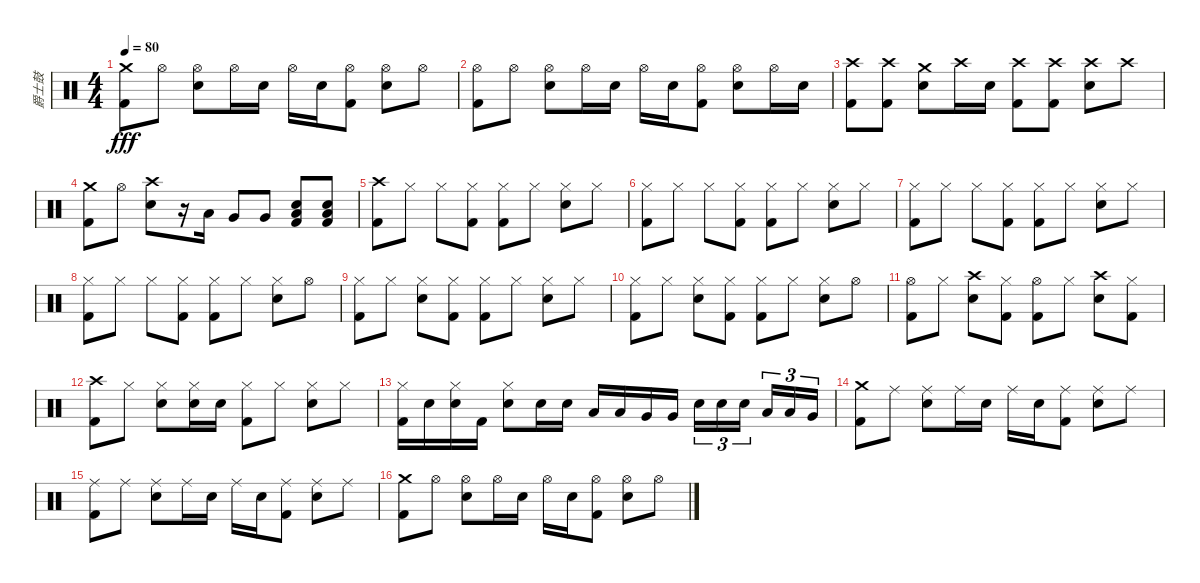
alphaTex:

\track ("爵士鼓" "爵士鼓") {instrument percussion}
\staff {score}
\articulation defaults
\ts (4 4)
\tempo 80
\clef neutral
\ks c
("Crash medium (hit)" "Kick (hit) 2").8{dy fff} "Hi-Hat (open)".8 ("Hi-Hat (open)" "Electric Snare (hit)").8 "Hi-Hat (open)".16 "Electric Snare (hit)".16 "Hi-Hat (open)".16 "Electric Snare (hit)".16 ("Hi-Hat (open)" "Kick (hit) 2").8 ("Hi-Hat (open)" "Electric Snare (hit)").8 "Hi-Hat (open)".8 |
("Hi-Hat (open)" "Kick (hit) 2").8 "Hi-Hat (open)".8 ("Hi-Hat (open)" "Electric Snare (hit)").8 "Hi-Hat (open)".16 "Electric Snare (hit)".16 "Hi-Hat (open)".16 "Electric Snare (hit)".16 ("Hi-Hat (open)" "Kick (hit) 2").8 ("Hi-Hat (open)" "Electric Snare (hit)").8 "Hi-Hat (open)".16 "Electric Snare (hit)".16 |
("Crash high (hit)" "Kick (hit) 2").8 ("Crash high (hit)" "Kick (hit) 2").8 ("Crash medium (hit)" "Electric Snare (hit)").8 "Crash high (hit)".16 "Electric Snare (hit)".16 ("Crash high (hit)" "Kick (hit) 2").8 ("Crash high (hit)" "Kick (hit) 2").8 ("Crash high (hit)" "Electric Snare (hit)").8 "Crash high (hit)".8 |
("Crash medium (hit)" "Kick (hit) 2").8 "Hi-Hat (open)".8 ("Crash high (hit)" "Electric Snare (hit)").8 r.16 "Low Tom (hit)".16 "Very Low Tom (hit)".8 "Very Low Tom (hit)".8 ("Electric Snare (hit)" "Low Floor Tom (hit)" "Kick (hit) 2").8 ("Electric Snare (hit)" "Low Floor Tom (hit)" "Kick (hit) 2").8 |
("Crash high (hit)" "Kick (hit) 2").8 "Hi-Hat (closed)".8 "Hi-Hat (closed)".8 ("Hi-Hat (closed)" "Kick (hit) 2").8 ("Hi-Hat (closed)" "Kick (hit) 2").8 "Hi-Hat (closed)".8 ("Hi-Hat (closed)" "Electric Snare (hit)").8 "Hi-Hat (closed)".8 |
("Hi-Hat (closed)" "Kick (hit) 2").8 "Hi-Hat (closed)".8 "Hi-Hat (closed)".8 ("Hi-Hat (closed)" "Kick (hit) 2").8 ("Hi-Hat (closed)" "Kick (hit) 2").8 "Hi-Hat (closed)".8 ("Hi-Hat (closed)" "Electric Snare (hit)").8 "Hi-Hat (closed)".8 |
("Hi-Hat (closed)" "Kick (hit) 2").8 "Hi-Hat (closed)".8 "Hi-Hat (closed)".8 ("Hi-Hat (closed)" "Kick (hit) 2").8 ("Hi-Hat (closed)" "Kick (hit) 2").8 "Hi-Hat (closed)".8 ("Hi-Hat (closed)" "Electric Snare (hit)").8 "Hi-Hat (closed)".8 |
("Hi-Hat (closed)" "Kick (hit) 2").8 "Hi-Hat (closed)".8 "Hi-Hat (closed)".8 ("Hi-Hat (closed)" "Kick (hit) 2").8 ("Hi-Hat (closed)" "Kick (hit) 2").8 "Hi-Hat (closed)".8 ("Hi-Hat (closed)" "Electric Snare (hit)").8 "Hi-Hat (open)".8 |
("Hi-Hat (closed)" "Kick (hit) 2").8 "Hi-Hat (closed)".8 ("Hi-Hat (closed)" "Electric Snare (hit)").8 ("Hi-Hat (closed)" "Kick (hit) 2").8 ("Hi-Hat (closed)" "Kick (hit) 2").8 "Hi-Hat (closed)".8 ("Hi-Hat (closed)" "Electric Snare (hit)").8 "Hi-Hat (closed)".8 |
("Hi-Hat (closed)" "Kick (hit) 2").8 "Hi-Hat (closed)".8 ("Hi-Hat (closed)" "Electric Snare (hit)").8 ("Hi-Hat (closed)" "Kick (hit) 2").8 ("Hi-Hat (closed)" "Kick (hit) 2").8 "Hi-Hat (closed)".8 ("Hi-Hat (closed)" "Electric Snare (hit)").8 "Hi-Hat (open)".8 |
("Hi-Hat (open)" "Kick (hit) 2").8 "Hi-Hat (closed)".8 ("Crash high (hit)" "Electric Snare (hit)").8 ("Hi-Hat (closed)" "Kick (hit) 2").8 ("Hi-Hat (open)" "Kick (hit) 2").8 "Hi-Hat (closed)".8 ("Crash high (hit)" "Electric Snare (hit)").8 ("Hi-Hat (closed)" "Kick (hit) 2").8 |
("Crash high (hit)" "Kick (hit) 2").8 "Hi-Hat (closed)".8 ("Hi-Hat (closed)" "Electric Snare (hit)").8 ("Hi-Hat (closed)" "Electric Snare (hit)").16 "Electric Snare (hit)".16 ("Hi-Hat (closed)" "Kick (hit) 2").8 "Hi-Hat (closed)".8 ("Hi-Hat (closed)" "Electric Snare (hit)").8 "Hi-Hat (closed)".8 |
("Hi-Hat (closed)" "Kick (hit) 2").16 "Electric Snare (hit)".16 ("Hi-Hat (closed)" "Electric Snare (hit)").16 "Kick (hit) 2".16 ("Hi-Hat (closed)" "Electric Snare (hit)").8 "Electric Snare (hit)".16 "Electric Snare (hit)".16 "Low Tom (hit)".16 "Low Tom (hit)".16 "Very Low Tom (hit)".16 "Very Low Tom (hit)".16 "Electric Snare (hit)".16{tu (3 2)} "Electric Snare (hit)".16{tu (3 2)} "Electric Snare (hit)".16{tu (3 2) beam splitsecondary} "Low Tom (hit)".16{tu (3 2)} "Low Tom (hit)".16{tu (3 2)} "Very Low Tom (hit)".16{tu (3 2)} |
("Crash medium (hit)" "Kick (hit) 2").8 "Ride (middle)".8 ("Ride (middle)" "Electric Snare (hit)").8 "Ride (middle)".16 "Electric Snare (hit)".16 "Ride (middle)".16 "Electric Snare (hit)".16 ("Ride (middle)" "Kick (hit) 2").8 ("Ride (middle)" "Electric Snare (hit)").8 "Ride (middle)".8 |
("Ride (middle)" "Kick (hit) 2").8 "Ride (middle)".8 ("Ride (middle)" "Electric Snare (hit)").8 "Ride (middle)".16 "Electric Snare (hit)".16 "Ride (middle)".16 "Electric Snare (hit)".16 ("Ride (middle)" "Kick (hit) 2").8 ("Ride (middle)" "Electric Snare (hit)").8 "Ride (middle)".8 |
("Crash medium (hit)" "Kick (hit) 2").8 "Hi-Hat (open)".8 ("Hi-Hat (open)" "Electric Snare (hit)").8 "Hi-Hat (open)".16 "Electric Snare (hit)".16 "Hi-Hat (open)".16 "Electric Snare (hit)".16 ("Hi-Hat (open)" "Kick (hit) 2").8 ("Hi-Hat (open)" "Electric Snare (hit)").8 "Hi-Hat (open)".8
